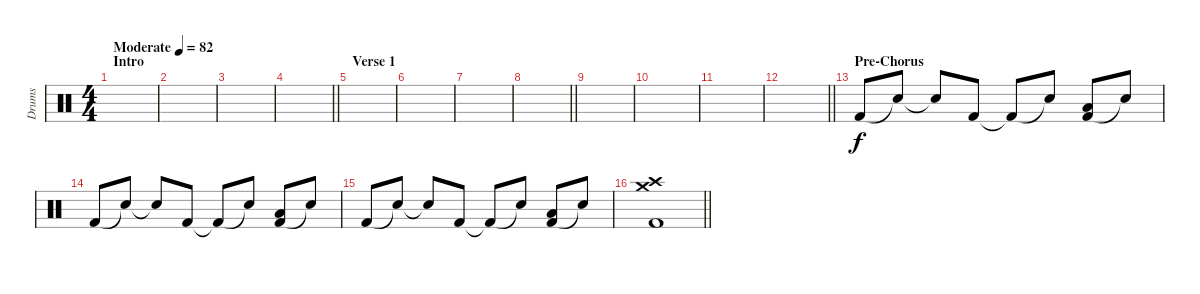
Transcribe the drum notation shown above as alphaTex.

\track ("Drums" "Drums") {instrument percussion}
\staff {score}
\articulation defaults
\ts (4 4)
\section ("" "Intro")
\tempo (82 "Moderate")
\clef neutral
\ks c
|
|
|
\barLineRight lightlight
|
\section ("" "Verse 1")
|
|
|
\barLineRight lightlight
|
|
|
|
\barLineRight lightlight
|
\section ("" "Pre-Chorus")
"Kick (hit) 2".8 "Snare (hit)"{t}.8 "Snare (hit)"{t}.8 "Kick (hit) 2".8 "Kick (hit) 2"{t}.8 "Snare (hit)"{t}.8 ("Kick (hit) 2" "Low Floor Tom (hit)").8 "Snare (hit)"{t}.8 |
"Kick (hit) 2".8 "Snare (hit)"{t}.8 "Snare (hit)"{t}.8 "Kick (hit) 2".8 "Kick (hit) 2"{t}.8 "Snare (hit)"{t}.8 ("Kick (hit) 2" "Low Floor Tom (hit)").8 "Snare (hit)"{t}.8 |
"Kick (hit) 2".8 "Snare (hit)"{t}.8 "Snare (hit)"{t}.8 "Kick (hit) 2".8 "Kick (hit) 2"{t}.8 "Snare (hit)"{t}.8 ("Kick (hit) 2" "Low Floor Tom (hit)").8 "Snare (hit)"{t}.8 |
\barLineRight lightlight
("Kick (hit) 2" "Crash medium (hit)" "Crash high (hit)").1
